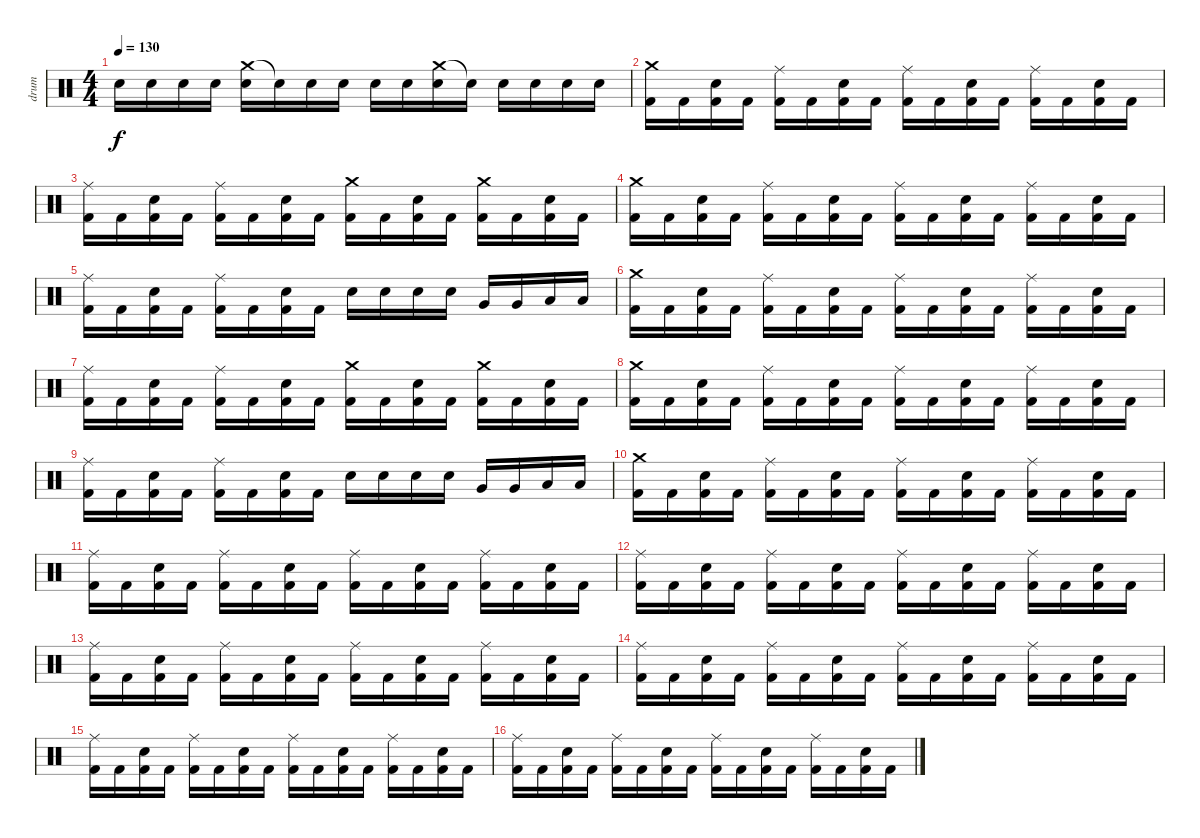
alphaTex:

\track ("drum" "drum") {instrument percussion}
\staff {score}
\articulation defaults
\ts (4 4)
\tempo 130
\clef neutral
\ks c "Snare (hit) 2".16{dy f} "Snare (hit) 2".16 "Snare (hit) 2".16 "Snare (hit) 2".16
("Crash medium (hit)" "Snare (hit) 2").16 "Snare (hit)"{t}.16 "Snare (hit) 2".16 "Snare (hit) 2".16 "Snare (hit) 2".16 "Snare (hit) 2".16 ("Crash medium (hit)" "Snare (hit) 2").16 "Snare (hit)"{t}.16 "Snare (hit) 2".16 "Snare (hit) 2".16 "Snare (hit) 2".16 "Snare (hit) 2".16 |
("Crash medium (hit)" "Kick (hit) 2").16 "Kick (hit) 2".16 ("Snare (hit) 2" "Kick (hit) 2").16 "Kick (hit) 2".16 ("Ride (middle)" "Kick (hit) 2").16 "Kick (hit) 2".16 ("Snare (hit) 2" "Kick (hit) 2").16 "Kick (hit) 2".16 ("Ride (middle)" "Kick (hit) 2").16 "Kick (hit) 2".16 ("Snare (hit) 2" "Kick (hit) 2").16 "Kick (hit) 2".16 ("Ride (middle)" "Kick (hit) 2").16 "Kick (hit) 2".16 ("Snare (hit) 2" "Kick (hit) 2").16 "Kick (hit) 2".16 |
("Ride (middle)" "Kick (hit) 2").16 "Kick (hit) 2".16 ("Snare (hit) 2" "Kick (hit) 2").16 "Kick (hit) 2".16 ("Ride (middle)" "Kick (hit) 2").16 "Kick (hit) 2".16 ("Snare (hit) 2" "Kick (hit) 2").16 "Kick (hit) 2".16 ("Crash medium (hit)" "Kick (hit) 2").16 "Kick (hit) 2".16 ("Snare (hit) 2" "Kick (hit) 2").16 "Kick (hit) 2".16 ("Crash medium (hit)" "Kick (hit) 2").16 "Kick (hit) 2".16 ("Snare (hit) 2" "Kick (hit) 2").16 "Kick (hit) 2".16 |
("Crash medium (hit)" "Kick (hit) 2").16 "Kick (hit) 2".16 ("Snare (hit) 2" "Kick (hit) 2").16 "Kick (hit) 2".16 ("Ride (middle)" "Kick (hit) 2").16 "Kick (hit) 2".16 ("Snare (hit) 2" "Kick (hit) 2").16 "Kick (hit) 2".16 ("Ride (middle)" "Kick (hit) 2").16 "Kick (hit) 2".16 ("Snare (hit) 2" "Kick (hit) 2").16 "Kick (hit) 2".16 ("Ride (middle)" "Kick (hit) 2").16 "Kick (hit) 2".16 ("Snare (hit) 2" "Kick (hit) 2").16 "Kick (hit) 2".16 |
("Ride (middle)" "Kick (hit) 2").16 "Kick (hit) 2".16 ("Snare (hit) 2" "Kick (hit) 2").16 "Kick (hit) 2".16 ("Ride (middle)" "Kick (hit) 2").16 "Kick (hit) 2".16 ("Snare (hit) 2" "Kick (hit) 2").16 "Kick (hit) 2".16 "Snare (hit) 2".16 "Snare (hit) 2".16 "Snare (hit) 2".16 "Snare (hit) 2".16 "Very Low Tom (hit)".16 "Very Low Tom (hit)".16 "Low Floor Tom (hit)".16 "Low Floor Tom (hit)".16 |
("Crash medium (hit)" "Kick (hit) 2").16 "Kick (hit) 2".16 ("Snare (hit) 2" "Kick (hit) 2").16 "Kick (hit) 2".16 ("Ride (middle)" "Kick (hit) 2").16 "Kick (hit) 2".16 ("Snare (hit) 2" "Kick (hit) 2").16 "Kick (hit) 2".16 ("Ride (middle)" "Kick (hit) 2").16 "Kick (hit) 2".16 ("Snare (hit) 2" "Kick (hit) 2").16 "Kick (hit) 2".16 ("Ride (middle)" "Kick (hit) 2").16 "Kick (hit) 2".16 ("Snare (hit) 2" "Kick (hit) 2").16 "Kick (hit) 2".16 |
("Ride (middle)" "Kick (hit) 2").16 "Kick (hit) 2".16 ("Snare (hit) 2" "Kick (hit) 2").16 "Kick (hit) 2".16 ("Ride (middle)" "Kick (hit) 2").16 "Kick (hit) 2".16 ("Snare (hit) 2" "Kick (hit) 2").16 "Kick (hit) 2".16 ("Crash medium (hit)" "Kick (hit) 2").16 "Kick (hit) 2".16 ("Snare (hit) 2" "Kick (hit) 2").16 "Kick (hit) 2".16 ("Crash medium (hit)" "Kick (hit) 2").16 "Kick (hit) 2".16 ("Snare (hit) 2" "Kick (hit) 2").16 "Kick (hit) 2".16 |
("Crash medium (hit)" "Kick (hit) 2").16 "Kick (hit) 2".16 ("Snare (hit) 2" "Kick (hit) 2").16 "Kick (hit) 2".16 ("Ride (middle)" "Kick (hit) 2").16 "Kick (hit) 2".16 ("Snare (hit) 2" "Kick (hit) 2").16 "Kick (hit) 2".16 ("Ride (middle)" "Kick (hit) 2").16 "Kick (hit) 2".16 ("Snare (hit) 2" "Kick (hit) 2").16 "Kick (hit) 2".16 ("Ride (middle)" "Kick (hit) 2").16 "Kick (hit) 2".16 ("Snare (hit) 2" "Kick (hit) 2").16 "Kick (hit) 2".16 |
("Ride (middle)" "Kick (hit) 2").16 "Kick (hit) 2".16 ("Snare (hit) 2" "Kick (hit) 2").16 "Kick (hit) 2".16 ("Ride (middle)" "Kick (hit) 2").16 "Kick (hit) 2".16 ("Snare (hit) 2" "Kick (hit) 2").16 "Kick (hit) 2".16 "Snare (hit) 2".16 "Snare (hit) 2".16 "Snare (hit) 2".16 "Snare (hit) 2".16 "Very Low Tom (hit)".16 "Very Low Tom (hit)".16 "Low Floor Tom (hit)".16 "Low Floor Tom (hit)".16 |
("Crash medium (hit)" "Kick (hit) 2").16 "Kick (hit) 2".16 ("Snare (hit) 2" "Kick (hit) 2").16 "Kick (hit) 2".16 ("Ride (middle)" "Kick (hit) 2").16 "Kick (hit) 2".16 ("Snare (hit) 2" "Kick (hit) 2").16 "Kick (hit) 2".16 ("Ride (middle)" "Kick (hit) 2").16 "Kick (hit) 2".16 ("Snare (hit) 2" "Kick (hit) 2").16 "Kick (hit) 2".16 ("Ride (middle)" "Kick (hit) 2").16 "Kick (hit) 2".16 ("Snare (hit) 2" "Kick (hit) 2").16 "Kick (hit) 2".16 |
("Ride (middle)" "Kick (hit) 2").16 "Kick (hit) 2".16 ("Snare (hit) 2" "Kick (hit) 2").16 "Kick (hit) 2".16 ("Ride (middle)" "Kick (hit) 2").16 "Kick (hit) 2".16 ("Snare (hit) 2" "Kick (hit) 2").16 "Kick (hit) 2".16 ("Ride (middle)" "Kick (hit) 2").16 "Kick (hit) 2".16 ("Snare (hit) 2" "Kick (hit) 2").16 "Kick (hit) 2".16 ("Ride (middle)" "Kick (hit) 2").16 "Kick (hit) 2".16 ("Snare (hit) 2" "Kick (hit) 2").16 "Kick (hit) 2".16 |
("Ride (middle)" "Kick (hit) 2").16 "Kick (hit) 2".16 ("Snare (hit) 2" "Kick (hit) 2").16 "Kick (hit) 2".16 ("Ride (middle)" "Kick (hit) 2").16 "Kick (hit) 2".16 ("Snare (hit) 2" "Kick (hit) 2").16 "Kick (hit) 2".16 ("Ride (middle)" "Kick (hit) 2").16 "Kick (hit) 2".16 ("Snare (hit) 2" "Kick (hit) 2").16 "Kick (hit) 2".16 ("Ride (middle)" "Kick (hit) 2").16 "Kick (hit) 2".16 ("Snare (hit) 2" "Kick (hit) 2").16 "Kick (hit) 2".16 |
("Ride (middle)" "Kick (hit) 2").16 "Kick (hit) 2".16 ("Snare (hit) 2" "Kick (hit) 2").16 "Kick (hit) 2".16 ("Ride (middle)" "Kick (hit) 2").16 "Kick (hit) 2".16 ("Snare (hit) 2" "Kick (hit) 2").16 "Kick (hit) 2".16 ("Ride (middle)" "Kick (hit) 2").16 "Kick (hit) 2".16 ("Snare (hit) 2" "Kick (hit) 2").16 "Kick (hit) 2".16 ("Ride (middle)" "Kick (hit) 2").16 "Kick (hit) 2".16 ("Snare (hit) 2" "Kick (hit) 2").16 "Kick (hit) 2".16 |
("Ride (middle)" "Kick (hit) 2").16 "Kick (hit) 2".16 ("Snare (hit) 2" "Kick (hit) 2").16 "Kick (hit) 2".16 ("Ride (middle)" "Kick (hit) 2").16 "Kick (hit) 2".16 ("Snare (hit) 2" "Kick (hit) 2").16 "Kick (hit) 2".16 ("Ride (middle)" "Kick (hit) 2").16 "Kick (hit) 2".16 ("Snare (hit) 2" "Kick (hit) 2").16 "Kick (hit) 2".16 ("Ride (middle)" "Kick (hit) 2").16 "Kick (hit) 2".16 ("Snare (hit) 2" "Kick (hit) 2").16 "Kick (hit) 2".16 |
("Ride (middle)" "Kick (hit) 2").16 "Kick (hit) 2".16 ("Snare (hit) 2" "Kick (hit) 2").16 "Kick (hit) 2".16 ("Ride (middle)" "Kick (hit) 2").16 "Kick (hit) 2".16 ("Snare (hit) 2" "Kick (hit) 2").16 "Kick (hit) 2".16 ("Ride (middle)" "Kick (hit) 2").16 "Kick (hit) 2".16 ("Snare (hit) 2" "Kick (hit) 2").16 "Kick (hit) 2".16 ("Ride (middle)" "Kick (hit) 2").16 "Kick (hit) 2".16 ("Snare (hit) 2" "Kick (hit) 2").16 "Kick (hit) 2".16 |
("Ride (middle)" "Kick (hit) 2").16 "Kick (hit) 2".16 ("Snare (hit) 2" "Kick (hit) 2").16 "Kick (hit) 2".16 ("Ride (middle)" "Kick (hit) 2").16 "Kick (hit) 2".16 ("Snare (hit) 2" "Kick (hit) 2").16 "Kick (hit) 2".16 ("Ride (middle)" "Kick (hit) 2").16 "Kick (hit) 2".16 ("Snare (hit) 2" "Kick (hit) 2").16 "Kick (hit) 2".16 ("Ride (middle)" "Kick (hit) 2").16 "Kick (hit) 2".16 ("Snare (hit) 2" "Kick (hit) 2").16 "Kick (hit) 2".16
